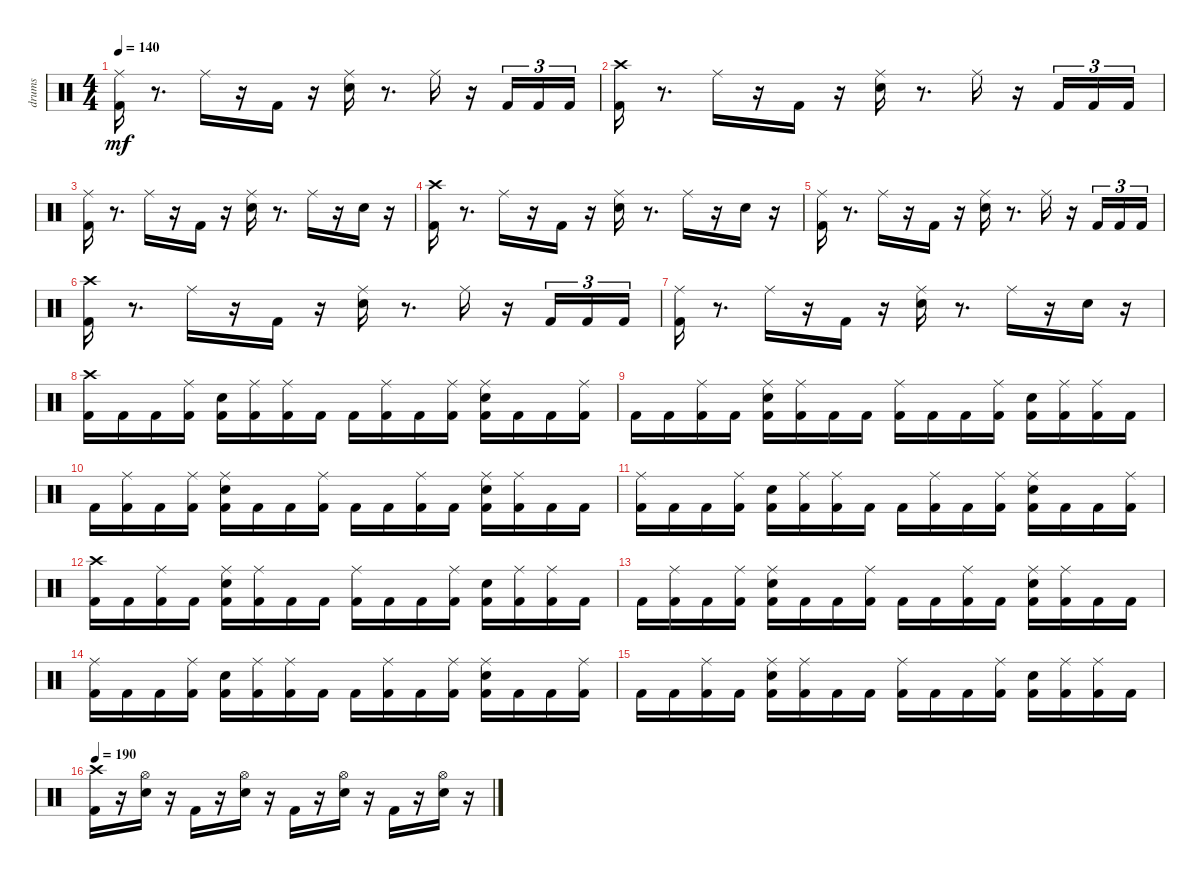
\track ("drums               " "drums     ") {instrument percussion}
\staff {score}
\articulation defaults
\ts (4 4)
\tempo 140
\clef neutral
\ks c
("Kick (hit) 2" "Ride (middle)").16{dy mf} r.8{d} "Ride (middle)".16 r.16 "Kick (hit) 2".16 r.16 ("Ride (middle)" "Snare (hit) 2").16 r.8{d} "Ride (middle)".16 r.16 "Kick (hit) 2".16{tu (3 2)} "Kick (hit) 2".16{tu (3 2)} "Kick (hit) 2".16{tu (3 2)} |
("Kick (hit) 2" "Crash high (hit)").16 r.8{d} "Ride (middle)".16 r.16 "Kick (hit) 2".16 r.16 ("Ride (middle)" "Snare (hit) 2").16 r.8{d} "Ride (middle)".16 r.16 "Kick (hit) 2".16{tu (3 2)} "Kick (hit) 2".16{tu (3 2)} "Kick (hit) 2".16{tu (3 2)} |
("Kick (hit) 2" "Ride (middle)").16 r.8{d} "Ride (middle)".16 r.16 "Kick (hit) 2".16 r.16 ("Ride (middle)" "Snare (hit) 2").16 r.8{d} "Ride (middle)".16 r.16 "Snare (hit) 2".16 r.16 |
("Kick (hit) 2" "Crash high (hit)").16 r.8{d} "Ride (middle)".16 r.16 "Kick (hit) 2".16 r.16 ("Ride (middle)" "Snare (hit) 2").16 r.8{d} "Ride (middle)".16 r.16 "Snare (hit) 2".16 r.16 |
("Kick (hit) 2" "Ride (middle)").16 r.8{d} "Ride (middle)".16 r.16 "Kick (hit) 2".16 r.16 ("Ride (middle)" "Snare (hit) 2").16 r.8{d} "Ride (middle)".16 r.16 "Kick (hit) 2".16{tu (3 2)} "Kick (hit) 2".16{tu (3 2)} "Kick (hit) 2".16{tu (3 2)} |
("Kick (hit) 2" "Crash high (hit)").16 r.8{d} "Ride (middle)".16 r.16 "Kick (hit) 2".16 r.16 ("Ride (middle)" "Snare (hit) 2").16 r.8{d} "Ride (middle)".16 r.16 "Kick (hit) 2".16{tu (3 2)} "Kick (hit) 2".16{tu (3 2)} "Kick (hit) 2".16{tu (3 2)} |
("Kick (hit) 2" "Ride (middle)").16 r.8{d} "Ride (middle)".16 r.16 "Kick (hit) 2".16 r.16 ("Ride (middle)" "Snare (hit) 2").16 r.8{d} "Ride (middle)".16 r.16 "Snare (hit) 2".16 r.16 |
("Kick (hit) 2" "Crash high (hit)").16 "Kick (hit) 2".16 "Kick (hit) 2".16 ("Kick (hit) 2" "Ride (middle)").16 ("Kick (hit) 2" "Snare (hit) 2").16 ("Kick (hit) 2" "Ride (middle)").16 ("Kick (hit) 2" "Ride (middle)").16 "Kick (hit) 2".16 "Kick (hit) 2".16 ("Kick (hit) 2" "Ride (middle)").16 "Kick (hit) 2".16 ("Kick (hit) 2" "Ride (middle)").16 ("Kick (hit) 2" "Snare (hit) 2" "Ride (middle)").16 "Kick (hit) 2".16 "Kick (hit) 2".16 ("Kick (hit) 2" "Ride (middle)").16 |
"Kick (hit) 2".16 "Kick (hit) 2".16 ("Kick (hit) 2" "Ride (middle)").16 "Kick (hit) 2".16 ("Kick (hit) 2" "Snare (hit) 2" "Ride (middle)").16 ("Kick (hit) 2" "Ride (middle)").16 "Kick (hit) 2".16 "Kick (hit) 2".16 ("Kick (hit) 2" "Ride (middle)").16 "Kick (hit) 2".16 "Kick (hit) 2".16 ("Kick (hit) 2" "Ride (middle)").16 ("Kick (hit) 2" "Snare (hit) 2").16 ("Kick (hit) 2" "Ride (middle)").16 ("Kick (hit) 2" "Ride (middle)").16 "Kick (hit) 2".16 |
"Kick (hit) 2".16 ("Kick (hit) 2" "Ride (middle)").16 "Kick (hit) 2".16 ("Kick (hit) 2" "Ride (middle)").16 ("Kick (hit) 2" "Snare (hit) 2" "Ride (middle)").16 "Kick (hit) 2".16 "Kick (hit) 2".16 ("Kick (hit) 2" "Ride (middle)").16 "Kick (hit) 2".16 "Kick (hit) 2".16 ("Kick (hit) 2" "Ride (middle)").16 "Kick (hit) 2".16 ("Kick (hit) 2" "Snare (hit) 2" "Ride (middle)").16 ("Kick (hit) 2" "Ride (middle)").16 "Kick (hit) 2".16 "Kick (hit) 2".16 |
("Kick (hit) 2" "Ride (middle)").16 "Kick (hit) 2".16 "Kick (hit) 2".16 ("Kick (hit) 2" "Ride (middle)").16 ("Kick (hit) 2" "Snare (hit) 2").16 ("Kick (hit) 2" "Ride (middle)").16 ("Kick (hit) 2" "Ride (middle)").16 "Kick (hit) 2".16 "Kick (hit) 2".16 ("Kick (hit) 2" "Ride (middle)").16 "Kick (hit) 2".16 ("Kick (hit) 2" "Ride (middle)").16 ("Kick (hit) 2" "Snare (hit) 2" "Ride (middle)").16 "Kick (hit) 2".16 "Kick (hit) 2".16 ("Kick (hit) 2" "Ride (middle)").16 |
("Kick (hit) 2" "Crash high (hit)").16 "Kick (hit) 2".16 ("Kick (hit) 2" "Ride (middle)").16 "Kick (hit) 2".16 ("Kick (hit) 2" "Snare (hit) 2" "Ride (middle)").16 ("Kick (hit) 2" "Ride (middle)").16 "Kick (hit) 2".16 "Kick (hit) 2".16 ("Kick (hit) 2" "Ride (middle)").16 "Kick (hit) 2".16 "Kick (hit) 2".16 ("Kick (hit) 2" "Ride (middle)").16 ("Kick (hit) 2" "Snare (hit) 2").16 ("Kick (hit) 2" "Ride (middle)").16 ("Kick (hit) 2" "Ride (middle)").16 "Kick (hit) 2".16 |
"Kick (hit) 2".16 ("Kick (hit) 2" "Ride (middle)").16 "Kick (hit) 2".16 ("Kick (hit) 2" "Ride (middle)").16 ("Kick (hit) 2" "Snare (hit) 2" "Ride (middle)").16 "Kick (hit) 2".16 "Kick (hit) 2".16 ("Kick (hit) 2" "Ride (middle)").16 "Kick (hit) 2".16 "Kick (hit) 2".16 ("Kick (hit) 2" "Ride (middle)").16 "Kick (hit) 2".16 ("Kick (hit) 2" "Snare (hit) 2" "Ride (middle)").16 ("Kick (hit) 2" "Ride (middle)").16 "Kick (hit) 2".16 "Kick (hit) 2".16 |
("Kick (hit) 2" "Ride (middle)").16 "Kick (hit) 2".16 "Kick (hit) 2".16 ("Kick (hit) 2" "Ride (middle)").16 ("Kick (hit) 2" "Snare (hit) 2").16 ("Kick (hit) 2" "Ride (middle)").16 ("Kick (hit) 2" "Ride (middle)").16 "Kick (hit) 2".16 "Kick (hit) 2".16 ("Kick (hit) 2" "Ride (middle)").16 "Kick (hit) 2".16 ("Kick (hit) 2" "Ride (middle)").16 ("Kick (hit) 2" "Snare (hit) 2" "Ride (middle)").16 "Kick (hit) 2".16 "Kick (hit) 2".16 ("Kick (hit) 2" "Ride (middle)").16 |
"Kick (hit) 2".16 "Kick (hit) 2".16 ("Kick (hit) 2" "Ride (middle)").16 "Kick (hit) 2".16 ("Kick (hit) 2" "Snare (hit) 2" "Ride (middle)").16 ("Kick (hit) 2" "Ride (middle)").16 "Kick (hit) 2".16 "Kick (hit) 2".16 ("Kick (hit) 2" "Ride (middle)").16 "Kick (hit) 2".16 "Kick (hit) 2".16 ("Kick (hit) 2" "Ride (middle)").16 ("Kick (hit) 2" "Snare (hit) 2").16 ("Kick (hit) 2" "Ride (middle)").16 ("Kick (hit) 2" "Ride (middle)").16 "Kick (hit) 2".16 |
\tempo 190
("Kick (hit) 2" "Crash high (hit)").16 r.16 ("Snare (hit) 2" "Hi-Hat (open)").16 r.16 "Kick (hit) 2".16 r.16 ("Snare (hit) 2" "Hi-Hat (open)").16 r.16 "Kick (hit) 2".16 r.16 ("Snare (hit) 2" "Hi-Hat (open)").16 r.16 "Kick (hit) 2".16 r.16 ("Snare (hit) 2" "Hi-Hat (open)").16 r.16
